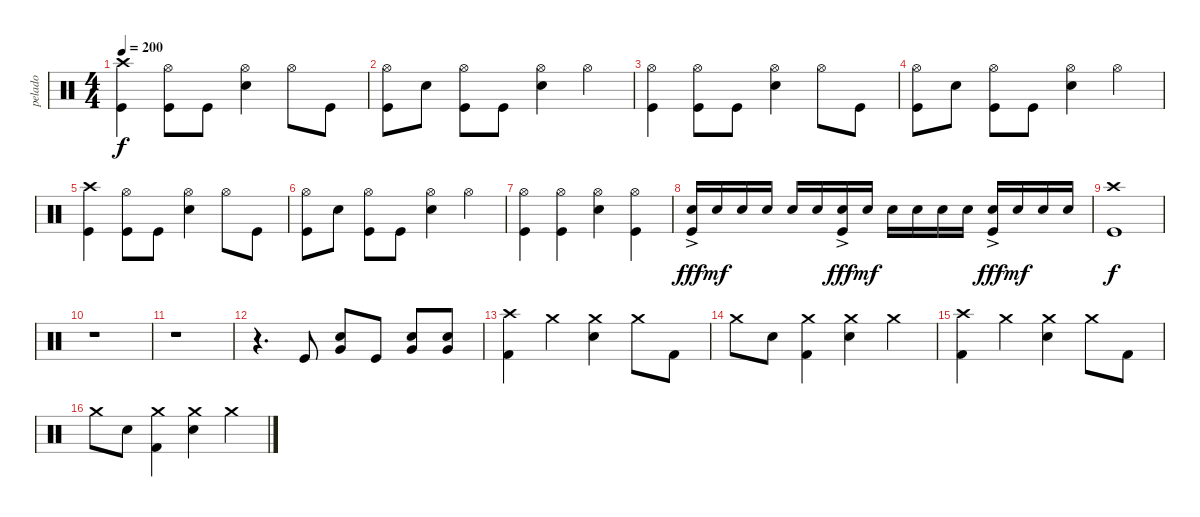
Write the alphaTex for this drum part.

\track ("pelado" "pelado") {instrument percussion}
\staff {score}
\articulation defaults
\ts (4 4)
\tempo 200
\clef neutral
\ks c
("Crash high (hit)" "Kick (hit)").4{dy f} ("Hi-Hat (open)" "Kick (hit)").8 "Kick (hit)".8 ("Hi-Hat (open)" "Electric Snare (hit)").4 "Hi-Hat (open)".8 "Kick (hit)".8 |
("Hi-Hat (open)" "Kick (hit)").8 "Electric Snare (hit)".8 ("Hi-Hat (open)" "Kick (hit)").8 "Kick (hit)".8 ("Hi-Hat (open)" "Electric Snare (hit)").4 "Hi-Hat (open)".4 |
("Hi-Hat (open)" "Kick (hit)").4 ("Hi-Hat (open)" "Kick (hit)").8 "Kick (hit)".8 ("Hi-Hat (open)" "Electric Snare (hit)").4 "Hi-Hat (open)".8 "Kick (hit)".8 |
("Hi-Hat (open)" "Kick (hit)").8 "Electric Snare (hit)".8 ("Hi-Hat (open)" "Kick (hit)").8 "Kick (hit)".8 ("Hi-Hat (open)" "Electric Snare (hit)").4 "Hi-Hat (open)".4 |
("Crash high (hit)" "Kick (hit)").4 ("Hi-Hat (open)" "Kick (hit)").8 "Kick (hit)".8 ("Hi-Hat (open)" "Electric Snare (hit)").4 "Hi-Hat (open)".8 "Kick (hit)".8 |
("Hi-Hat (open)" "Kick (hit)").8 "Electric Snare (hit)".8 ("Hi-Hat (open)" "Kick (hit)").8 "Kick (hit)".8 ("Hi-Hat (open)" "Electric Snare (hit)").4 "Hi-Hat (open)".4 |
("Hi-Hat (open)" "Kick (hit)").4 ("Hi-Hat (open)" "Kick (hit)").4 ("Hi-Hat (open)" "Electric Snare (hit)").4 ("Hi-Hat (open)" "Kick (hit)").4 |
("Electric Snare (hit)"{ac} "Kick (hit)").16{dy fff} "Electric Snare (hit)".16{dy mf} "Electric Snare (hit)".16 "Electric Snare (hit)".16 "Electric Snare (hit)".16 "Electric Snare (hit)".16 ("Electric Snare (hit)"{ac} "Kick (hit)").16{dy fff} "Electric Snare (hit)".16{dy mf} "Electric Snare (hit)".16 "Electric Snare (hit)".16 "Electric Snare (hit)".16 "Electric Snare (hit)".16 ("Electric Snare (hit)"{ac} "Kick (hit)").16{dy fff} "Electric Snare (hit)".16{dy mf} "Electric Snare (hit)".16 "Electric Snare (hit)".16 |
("Crash high (hit)" "Kick (hit)").1{dy f} |
r.1 |
r.1 |
r.4{d} "Kick (hit)".8 ("Very Low Tom (hit)" "Electric Snare (hit)").8 "Kick (hit)".8 ("Very Low Tom (hit)" "Electric Snare (hit)").8 ("Very Low Tom (hit)" "Electric Snare (hit)").8 |
("Crash high (hit)" "Kick (hit) 2").4 "Crash medium (hit)".4 ("Crash medium (hit)" "Electric Snare (hit)").4 "Crash medium (hit)".8 "Kick (hit) 2".8 |
"Crash medium (hit)".8 "Electric Snare (hit)".8 ("Crash medium (hit)" "Kick (hit) 2").4 ("Crash medium (hit)" "Electric Snare (hit)").4 "Crash medium (hit)".4 |
("Crash high (hit)" "Kick (hit) 2").4 "Crash medium (hit)".4 ("Crash medium (hit)" "Electric Snare (hit)").4 "Crash medium (hit)".8 "Kick (hit) 2".8 |
"Crash medium (hit)".8 "Electric Snare (hit)".8 ("Crash medium (hit)" "Kick (hit) 2").4 ("Crash medium (hit)" "Electric Snare (hit)").4 "Crash medium (hit)".4
